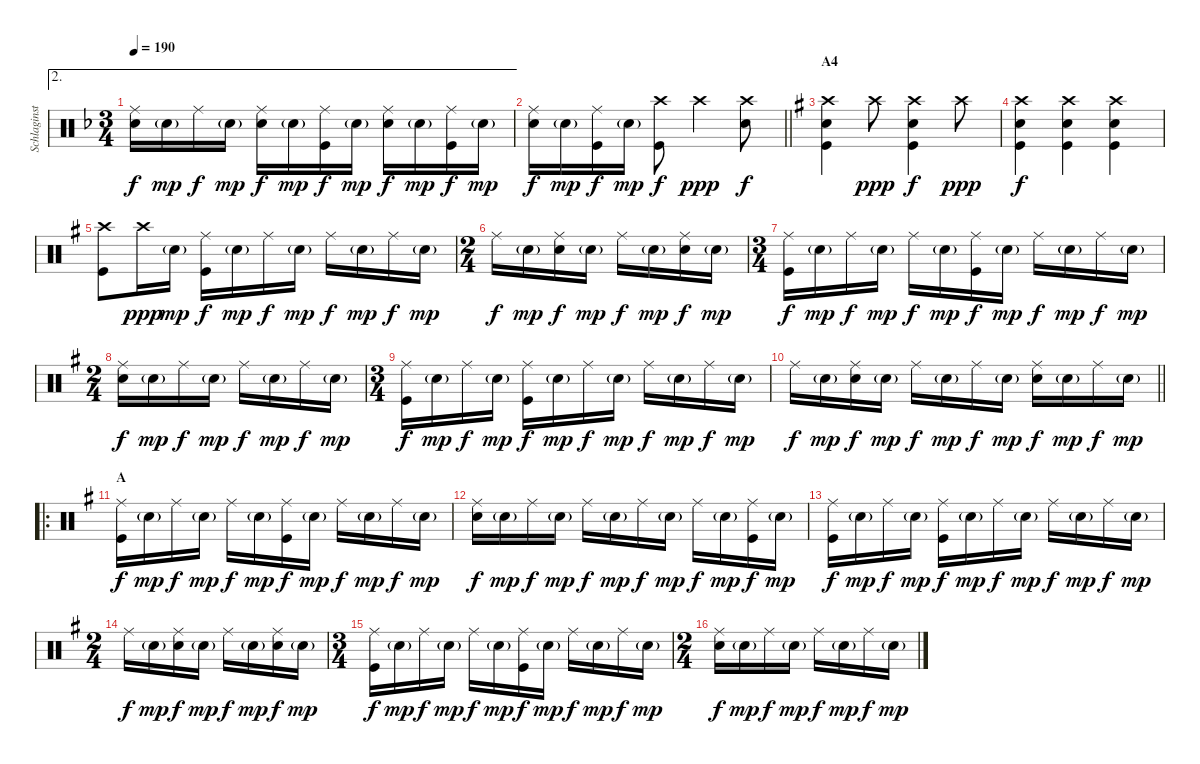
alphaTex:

\track ("Schlaginstrumente - Auswahl" "Schlaginst") {instrument percussion}
\staff {score}
\articulation defaults
\ae 2
\ts (3 4)
\tempo 190
\clef neutral
\ks dminor
("Ride (middle)" "Electric Snare (hit)").16{dy f} "Electric Snare (hit)"{g}.16{dy mp} "Ride (middle)".16{dy f} "Electric Snare (hit)"{g}.16{dy mp} ("Ride (middle)" "Electric Snare (hit)").16{dy f} "Electric Snare (hit)"{g}.16{dy mp} ("Ride (middle)" "Kick (hit)").16{dy f} "Electric Snare (hit)"{g}.16{dy mp} ("Ride (middle)" "Electric Snare (hit)").16{dy f} "Electric Snare (hit)"{g}.16{dy mp} ("Ride (middle)" "Kick (hit)").16{dy f} "Electric Snare (hit)"{g}.16{dy mp} |
\barLineRight lightlight
("Ride (middle)" "Electric Snare (hit)").16{dy f} "Electric Snare (hit)"{g}.16{dy mp} ("Ride (middle)" "Kick (hit)").16{dy f} "Electric Snare (hit)"{g}.16{dy mp} ("Crash high (hit)" "Kick (hit)").8{dy f} "Crash high (hit)".4{dy ppp} ("Crash high (hit)" "Electric Snare (hit)").8{dy f} |
\section ("" "A4")
\ks eminor
("Crash high (hit)" "Electric Snare (hit)" "Kick (hit)").4 "Crash high (hit)".8{dy ppp} ("Crash high (hit)" "Electric Snare (hit)" "Kick (hit)").4{dy f} "Crash high (hit)".8{dy ppp} |
("Crash high (hit)" "Electric Snare (hit)" "Kick (hit)").4{dy f} ("Crash high (hit)" "Electric Snare (hit)" "Kick (hit)").4 ("Crash high (hit)" "Electric Snare (hit)" "Kick (hit)").4 |
("Crash high (hit)" "Kick (hit)").8 "Crash high (hit)".16{dy ppp} "Electric Snare (hit)"{g}.16{dy mp} ("Ride (middle)" "Kick (hit)").16{dy f} "Electric Snare (hit)"{g}.16{dy mp} "Ride (middle)".16{dy f} "Electric Snare (hit)"{g}.16{dy mp} "Ride (middle)".16{dy f} "Electric Snare (hit)"{g}.16{dy mp} "Ride (middle)".16{dy f} "Electric Snare (hit)"{g}.16{dy mp} |
\ts (2 4)
"Ride (middle)".16{dy f} "Electric Snare (hit)"{g}.16{dy mp} ("Ride (middle)" "Electric Snare (hit)").16{dy f} "Electric Snare (hit)"{g}.16{dy mp} "Ride (middle)".16{dy f} "Electric Snare (hit)"{g}.16{dy mp} ("Ride (middle)" "Electric Snare (hit)").16{dy f} "Electric Snare (hit)"{g}.16{dy mp} |
\ts (3 4)
("Ride (middle)" "Kick (hit)").16{dy f} "Electric Snare (hit)"{g}.16{dy mp} "Ride (middle)".16{dy f} "Electric Snare (hit)"{g}.16{dy mp} "Ride (middle)".16{dy f} "Electric Snare (hit)"{g}.16{dy mp} ("Ride (middle)" "Kick (hit)").16{dy f} "Electric Snare (hit)"{g}.16{dy mp} "Ride (middle)".16{dy f} "Electric Snare (hit)"{g}.16{dy mp} "Ride (middle)".16{dy f} "Electric Snare (hit)"{g}.16{dy mp} |
\ts (2 4)
("Ride (middle)" "Electric Snare (hit)").16{dy f} "Electric Snare (hit)"{g}.16{dy mp} "Ride (middle)".16{dy f} "Electric Snare (hit)"{g}.16{dy mp} "Ride (middle)".16{dy f} "Electric Snare (hit)"{g}.16{dy mp} "Ride (middle)".16{dy f} "Electric Snare (hit)"{g}.16{dy mp} |
\ts (3 4)
("Ride (middle)" "Kick (hit)").16{dy f} "Electric Snare (hit)"{g}.16{dy mp} "Ride (middle)".16{dy f} "Electric Snare (hit)"{g}.16{dy mp} ("Ride (middle)" "Kick (hit)").16{dy f} "Electric Snare (hit)"{g}.16{dy mp} "Ride (middle)".16{dy f} "Electric Snare (hit)"{g}.16{dy mp} "Ride (middle)".16{dy f} "Electric Snare (hit)"{g}.16{dy mp} "Ride (middle)".16{dy f} "Electric Snare (hit)"{g}.16{dy mp} |
\barLineRight lightlight "Ride (middle)".16{dy f} "Electric Snare (hit)"{g}.16{dy mp}
("Ride (middle)" "Electric Snare (hit)").16{dy f} "Electric Snare (hit)"{g}.16{dy mp} "Ride (middle)".16{dy f} "Electric Snare (hit)"{g}.16{dy mp} "Ride (middle)".16{dy f} "Electric Snare (hit)"{g}.16{dy mp} ("Ride (middle)" "Electric Snare (hit)").16{dy f} "Electric Snare (hit)"{g}.16{dy mp} "Ride (middle)".16{dy f} "Electric Snare (hit)"{g}.16{dy mp} |
\ro
\section ("" "A")
("Ride (middle)" "Kick (hit)").16{dy f} "Electric Snare (hit)"{g}.16{dy mp} "Ride (middle)".16{dy f} "Electric Snare (hit)"{g}.16{dy mp} "Ride (middle)".16{dy f} "Electric Snare (hit)"{g}.16{dy mp} ("Ride (middle)" "Kick (hit)").16{dy f} "Electric Snare (hit)"{g}.16{dy mp} "Ride (middle)".16{dy f} "Electric Snare (hit)"{g}.16{dy mp} "Ride (middle)".16{dy f} "Electric Snare (hit)"{g}.16{dy mp} |
("Ride (middle)" "Electric Snare (hit)").16{dy f} "Electric Snare (hit)"{g}.16{dy mp} "Ride (middle)".16{dy f} "Electric Snare (hit)"{g}.16{dy mp} "Ride (middle)".16{dy f} "Electric Snare (hit)"{g}.16{dy mp} "Ride (middle)".16{dy f} "Electric Snare (hit)"{g}.16{dy mp} "Ride (middle)".16{dy f} "Electric Snare (hit)"{g}.16{dy mp} ("Ride (middle)" "Kick (hit)").16{dy f} "Electric Snare (hit)"{g}.16{dy mp} |
("Ride (middle)" "Kick (hit)").16{dy f} "Electric Snare (hit)"{g}.16{dy mp} "Ride (middle)".16{dy f} "Electric Snare (hit)"{g}.16{dy mp} ("Ride (middle)" "Kick (hit)").16{dy f} "Electric Snare (hit)"{g}.16{dy mp} "Ride (middle)".16{dy f} "Electric Snare (hit)"{g}.16{dy mp} "Ride (middle)".16{dy f} "Electric Snare (hit)"{g}.16{dy mp} "Ride (middle)".16{dy f} "Electric Snare (hit)"{g}.16{dy mp} |
\ts (2 4)
"Ride (middle)".16{dy f} "Electric Snare (hit)"{g}.16{dy mp} ("Ride (middle)" "Electric Snare (hit)").16{dy f} "Electric Snare (hit)"{g}.16{dy mp} "Ride (middle)".16{dy f} "Electric Snare (hit)"{g}.16{dy mp} ("Ride (middle)" "Electric Snare (hit)").16{dy f} "Electric Snare (hit)"{g}.16{dy mp} |
\ts (3 4)
("Ride (middle)" "Kick (hit)").16{dy f} "Electric Snare (hit)"{g}.16{dy mp} "Ride (middle)".16{dy f} "Electric Snare (hit)"{g}.16{dy mp} "Ride (middle)".16{dy f} "Electric Snare (hit)"{g}.16{dy mp} ("Ride (middle)" "Kick (hit)").16{dy f} "Electric Snare (hit)"{g}.16{dy mp} "Ride (middle)".16{dy f} "Electric Snare (hit)"{g}.16{dy mp} "Ride (middle)".16{dy f} "Electric Snare (hit)"{g}.16{dy mp} |
\ts (2 4)
("Ride (middle)" "Electric Snare (hit)").16{dy f} "Electric Snare (hit)"{g}.16{dy mp} "Ride (middle)".16{dy f} "Electric Snare (hit)"{g}.16{dy mp} "Ride (middle)".16{dy f} "Electric Snare (hit)"{g}.16{dy mp} "Ride (middle)".16{dy f} "Electric Snare (hit)"{g}.16{dy mp}
